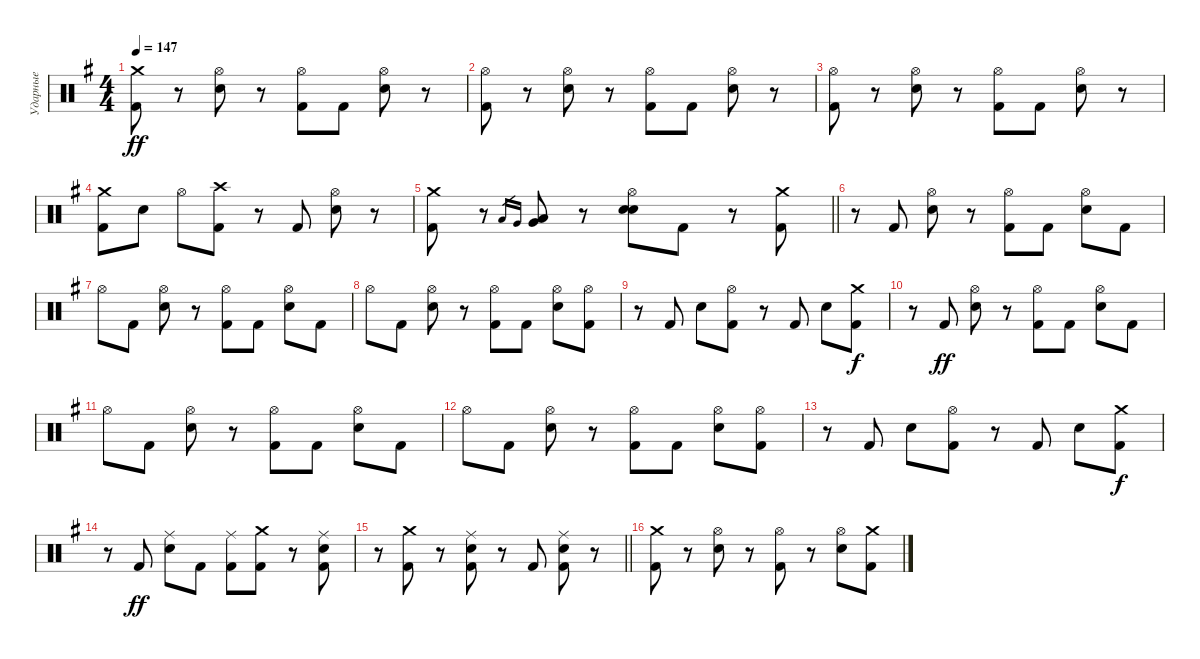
\track ("Ударные" "Ударные") {instrument percussion}
\staff {score}
\articulation defaults
\ts (4 4)
\tempo 147
\clef neutral
\ks eminor
("Kick (hit) 2" "Crash medium (hit)").8{dy ff} r.8 ("Electric Snare (hit)" "Hi-Hat (open)").8 r.8 ("Kick (hit) 2" "Hi-Hat (open)").8 "Kick (hit) 2".8 ("Electric Snare (hit)" "Hi-Hat (open)").8 r.8 |
("Kick (hit) 2" "Hi-Hat (open)").8 r.8 ("Electric Snare (hit)" "Hi-Hat (open)").8 r.8 ("Kick (hit) 2" "Hi-Hat (open)").8 "Kick (hit) 2".8 ("Electric Snare (hit)" "Hi-Hat (open)").8 r.8 |
("Kick (hit) 2" "Hi-Hat (open)").8 r.8 ("Electric Snare (hit)" "Hi-Hat (open)").8 r.8 ("Kick (hit) 2" "Hi-Hat (open)").8 "Kick (hit) 2".8 ("Electric Snare (hit)" "Hi-Hat (open)").8 r.8 |
("Kick (hit) 2" "Crash medium (hit)").8 "Electric Snare (hit)".8 "Hi-Hat (open)".8 ("Kick (hit) 2" "Crash high (hit)").8 r.8 "Kick (hit) 2".8 ("Electric Snare (hit)" "Hi-Hat (open)").8 r.8 |
\barLineRight lightlight
("Kick (hit) 2" "Crash medium (hit)").8 r.8 "Low Tom (hit)".16{gr} "Very Low Tom (hit)".16{gr} ("Low Tom (hit)" "Very Low Tom (hit)").8 r.8 ("Electric Snare (hit)" "Electric Snare (hit)" "Hi-Hat (open)").8 "Kick (hit) 2".8 r.8 ("Kick (hit) 2" "Crash medium (hit)").8 |
r.8 "Kick (hit) 2".8 ("Electric Snare (hit)" "Hi-Hat (open)").8 r.8 ("Kick (hit) 2" "Hi-Hat (open)").8 "Kick (hit) 2".8 ("Electric Snare (hit)" "Hi-Hat (open)").8 "Kick (hit) 2".8 |
"Hi-Hat (open)".8 "Kick (hit) 2".8 ("Electric Snare (hit)" "Hi-Hat (open)").8 r.8 ("Kick (hit) 2" "Hi-Hat (open)").8 "Kick (hit) 2".8 ("Electric Snare (hit)" "Hi-Hat (open)").8 "Kick (hit) 2".8 |
"Hi-Hat (open)".8 "Kick (hit) 2".8 ("Electric Snare (hit)" "Hi-Hat (open)").8 r.8 ("Kick (hit) 2" "Hi-Hat (open)").8 "Kick (hit) 2".8 ("Electric Snare (hit)" "Hi-Hat (open)").8 ("Kick (hit) 2" "Hi-Hat (open)").8 |
r.8 "Kick (hit) 2".8 "Electric Snare (hit)".8 ("Kick (hit) 2" "Hi-Hat (open)").8 r.8 "Kick (hit) 2".8 "Electric Snare (hit)".8 ("Kick (hit) 2" "Crash medium (hit)").8{dy f} |
r.8 "Kick (hit) 2".8{dy ff} ("Electric Snare (hit)" "Hi-Hat (open)").8 r.8 ("Kick (hit) 2" "Hi-Hat (open)").8 "Kick (hit) 2".8 ("Electric Snare (hit)" "Hi-Hat (open)").8 "Kick (hit) 2".8 |
"Hi-Hat (open)".8 "Kick (hit) 2".8 ("Electric Snare (hit)" "Hi-Hat (open)").8 r.8 ("Kick (hit) 2" "Hi-Hat (open)").8 "Kick (hit) 2".8 ("Electric Snare (hit)" "Hi-Hat (open)").8 "Kick (hit) 2".8 |
"Hi-Hat (open)".8 "Kick (hit) 2".8 ("Electric Snare (hit)" "Hi-Hat (open)").8 r.8 ("Kick (hit) 2" "Hi-Hat (open)").8 "Kick (hit) 2".8 ("Electric Snare (hit)" "Hi-Hat (open)").8 ("Kick (hit) 2" "Hi-Hat (open)").8 |
r.8 "Kick (hit) 2".8 "Electric Snare (hit)".8 ("Kick (hit) 2" "Hi-Hat (open)").8 r.8 "Kick (hit) 2".8 "Electric Snare (hit)".8 ("Kick (hit) 2" "Crash medium (hit)").8{dy f} |
r.8 "Kick (hit) 2".8{dy ff} ("Electric Snare (hit)" "Ride (middle)").8 "Kick (hit) 2".8 ("Kick (hit) 2" "Ride (middle)").8 ("Kick (hit) 2" "Crash medium (hit)").8 r.8 ("Kick (hit) 2" "Electric Snare (hit)" "Ride (middle)").8 |
\barLineRight lightlight
r.8 ("Kick (hit) 2" "Crash medium (hit)").8 r.8 ("Kick (hit) 2" "Electric Snare (hit)" "Ride (middle)").8 r.8 "Kick (hit) 2".8 ("Kick (hit) 2" "Electric Snare (hit)" "Ride (middle)").8 r.8 |
("Kick (hit) 2" "Crash medium (hit)").8 r.8 ("Electric Snare (hit)" "Hi-Hat (open)").8 r.8 ("Kick (hit) 2" "Hi-Hat (open)").8 r.8 ("Electric Snare (hit)" "Hi-Hat (open)").8 ("Kick (hit) 2" "Crash medium (hit)").8
